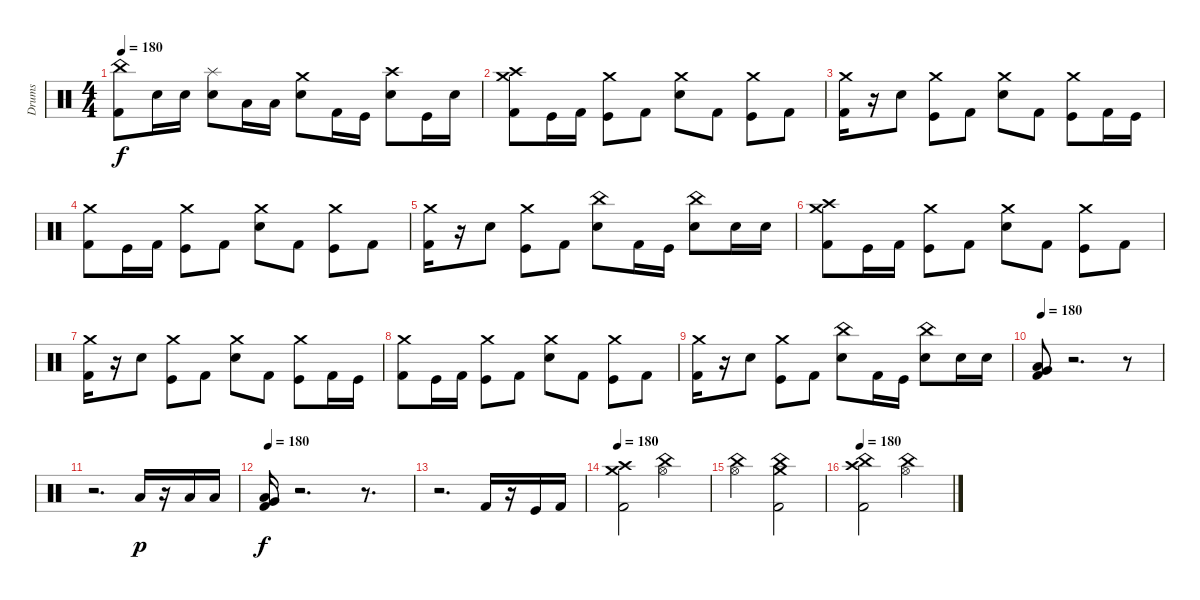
\track ("Drums" "Drums") {instrument percussion}
\staff {score}
\articulation defaults
\ts (4 4)
\tempo 180
\clef neutral
\ks c
("China (hit)" "Kick (hit) 2").8{dy f} "Electric Snare (hit)".16 "Electric Snare (hit)".16 ("Splash (hit)" "Electric Snare (hit)").8 "Low Tom (hit)".16 "Low Tom (hit)".16 ("Crash medium (hit)" "Electric Snare (hit)").8 "Kick (hit) 2".16 "Kick (hit)".16 ("Crash high (hit)" "Electric Snare (hit)").8 "Kick (hit)".16 "Electric Snare (hit)".16 |
("Crash medium (hit)" "Crash high (hit)" "Kick (hit) 2").8 "Kick (hit)".16 "Kick (hit) 2".16 ("Crash medium (hit)" "Kick (hit)").8 "Kick (hit) 2".8 ("Crash medium (hit)" "Electric Snare (hit)").8 "Kick (hit) 2".8 ("Crash medium (hit)" "Kick (hit)").8 "Kick (hit) 2".8 |
("Crash medium (hit)" "Kick (hit) 2").16 r.16 "Electric Snare (hit)".8 ("Crash medium (hit)" "Kick (hit)").8 "Kick (hit) 2".8 ("Crash medium (hit)" "Electric Snare (hit)").8 "Kick (hit) 2".8 ("Crash medium (hit)" "Kick (hit)").8 "Kick (hit) 2".16 "Kick (hit)".16 |
("Crash medium (hit)" "Kick (hit) 2").8 "Kick (hit)".16 "Kick (hit) 2".16 ("Crash medium (hit)" "Kick (hit)").8 "Kick (hit) 2".8 ("Crash medium (hit)" "Electric Snare (hit)").8 "Kick (hit) 2".8 ("Crash medium (hit)" "Kick (hit)").8 "Kick (hit) 2".8 |
("Crash medium (hit)" "Kick (hit) 2").16 r.16 "Electric Snare (hit)".8 ("Crash medium (hit)" "Kick (hit)").8 "Kick (hit) 2".8 ("China (hit)" "Electric Snare (hit)").8 "Kick (hit) 2".16 "Kick (hit)".16 ("China (hit)" "Electric Snare (hit)").8 "Electric Snare (hit)".16 "Electric Snare (hit)".16 |
("Crash medium (hit)" "Crash high (hit)" "Kick (hit) 2").8 "Kick (hit)".16 "Kick (hit) 2".16 ("Crash medium (hit)" "Kick (hit)").8 "Kick (hit) 2".8 ("Crash medium (hit)" "Electric Snare (hit)").8 "Kick (hit) 2".8 ("Crash medium (hit)" "Kick (hit)").8 "Kick (hit) 2".8 |
("Crash medium (hit)" "Kick (hit) 2").16 r.16 "Electric Snare (hit)".8 ("Crash medium (hit)" "Kick (hit)").8 "Kick (hit) 2".8 ("Crash medium (hit)" "Electric Snare (hit)").8 "Kick (hit) 2".8 ("Crash medium (hit)" "Kick (hit)").8 "Kick (hit) 2".16 "Kick (hit)".16 |
("Crash medium (hit)" "Kick (hit) 2").8 "Kick (hit)".16 "Kick (hit) 2".16 ("Crash medium (hit)" "Kick (hit)").8 "Kick (hit) 2".8 ("Crash medium (hit)" "Electric Snare (hit)").8 "Kick (hit) 2".8 ("Crash medium (hit)" "Kick (hit)").8 "Kick (hit) 2".8 |
("Crash medium (hit)" "Kick (hit) 2").16 r.16 "Electric Snare (hit)".8 ("Crash medium (hit)" "Kick (hit)").8 "Kick (hit) 2".8 ("China (hit)" "Electric Snare (hit)").8 "Kick (hit) 2".16 "Kick (hit)".16 ("China (hit)" "Electric Snare (hit)").8 "Electric Snare (hit)".16 "Electric Snare (hit)".16 |
\tempo 180
("Low Tom (hit)" "Very Low Tom (hit)" "Kick (hit) 2").8 r.2{d} r.8 |
r.2{d} "Low Tom (hit)".16{dy p} r.16 "Low Tom (hit)".16 "Low Tom (hit)".16 |
\tempo 180
("Low Tom (hit)" "Very Low Tom (hit)" "Kick (hit) 2").16{dy f} r.2{d} r.8{d} |
r.2{d} "Kick (hit) 2".16 r.16 "Kick (hit)".16 "Kick (hit) 2".16 |
\tempo 180
("Crash medium (hit)" "Crash high (hit)" "Kick (hit) 2").2 ("China (hit)" "Hi-Hat (open)").2 |
("China (hit)" "Hi-Hat (open)").2 ("China (hit)" "Crash medium (hit)" "Kick (hit) 2").2 |
\tempo 180
("China (hit)" "Crash high (hit)" "Kick (hit) 2").2 ("China (hit)" "Hi-Hat (open)").2
